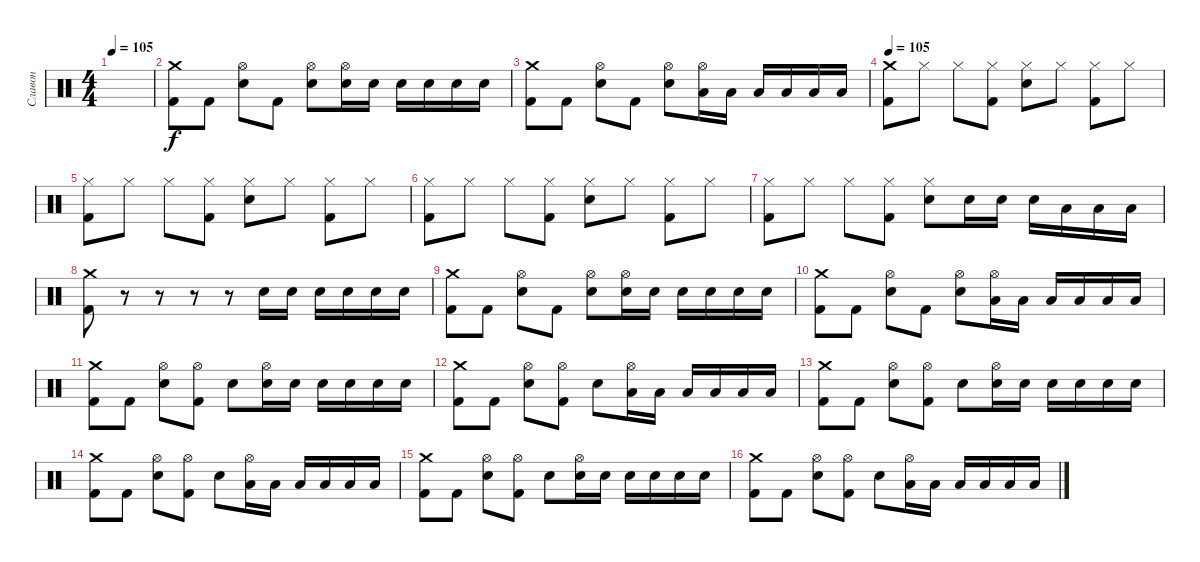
\track ("Славон" "Славон") {instrument percussion}
\staff {score}
\articulation defaults
\ts (4 4)
\tempo 105
\clef neutral
\ks c
|
("Crash medium (hit)" "Kick (hit) 2").8 "Kick (hit) 2".8 ("Hi-Hat (open)" "Snare (hit) 2").8 "Kick (hit) 2".8 ("Hi-Hat (open)" "Snare (hit) 2").8 ("Hi-Hat (open)" "Snare (hit) 2").16 "Snare (hit) 2".16 "Snare (hit) 2".16 "Snare (hit) 2".16 "Snare (hit) 2".16 "Snare (hit) 2".16 |
("Crash medium (hit)" "Kick (hit) 2").8 "Kick (hit) 2".8 ("Hi-Hat (open)" "Snare (hit) 2").8 "Kick (hit) 2".8 ("Hi-Hat (open)" "Snare (hit) 2").8 ("Hi-Hat (open)" "Low Tom (hit)").16 "Low Tom (hit)".16 "Low Tom (hit)".16 "Low Tom (hit)".16 "Low Tom (hit)".16 "Low Tom (hit)".16 |
\tempo 105
("Crash medium (hit)" "Kick (hit) 2").8 "Hi-Hat (closed)".8 "Hi-Hat (closed)".8 ("Hi-Hat (closed)" "Kick (hit) 2").8 ("Hi-Hat (closed)" "Snare (hit) 2").8 "Hi-Hat (closed)".8 ("Hi-Hat (closed)" "Kick (hit) 2").8 "Hi-Hat (closed)".8 |
("Hi-Hat (closed)" "Kick (hit) 2").8 "Hi-Hat (closed)".8 "Hi-Hat (closed)".8 ("Hi-Hat (closed)" "Kick (hit) 2").8 ("Hi-Hat (closed)" "Snare (hit) 2").8 "Hi-Hat (closed)".8 ("Hi-Hat (closed)" "Kick (hit) 2").8 "Hi-Hat (closed)".8 |
("Hi-Hat (closed)" "Kick (hit) 2").8 "Hi-Hat (closed)".8 "Hi-Hat (closed)".8 ("Hi-Hat (closed)" "Kick (hit) 2").8 ("Hi-Hat (closed)" "Snare (hit) 2").8 "Hi-Hat (closed)".8 ("Hi-Hat (closed)" "Kick (hit) 2").8 "Hi-Hat (closed)".8 |
("Hi-Hat (closed)" "Kick (hit) 2").8 "Hi-Hat (closed)".8 "Hi-Hat (closed)".8 ("Hi-Hat (closed)" "Kick (hit) 2").8 ("Hi-Hat (closed)" "Snare (hit) 2").8 "Snare (hit) 2".16 "Snare (hit) 2".16 "Snare (hit) 2".16 "Low Tom (hit)".16 "Low Tom (hit)".16 "Low Tom (hit)".16 |
("Crash medium (hit)" "Kick (hit) 2").8 r.8 r.8 r.8 r.8 "Snare (hit) 2".16 "Snare (hit) 2".16 "Snare (hit) 2".16 "Snare (hit) 2".16 "Snare (hit) 2".16 "Snare (hit) 2".16 |
("Crash medium (hit)" "Kick (hit) 2").8 "Kick (hit) 2".8 ("Hi-Hat (open)" "Snare (hit) 2").8 "Kick (hit) 2".8 ("Hi-Hat (open)" "Snare (hit) 2").8 ("Hi-Hat (open)" "Snare (hit) 2").16 "Snare (hit) 2".16 "Snare (hit) 2".16 "Snare (hit) 2".16 "Snare (hit) 2".16 "Snare (hit) 2".16 |
("Crash medium (hit)" "Kick (hit) 2").8 "Kick (hit) 2".8 ("Hi-Hat (open)" "Snare (hit) 2").8 "Kick (hit) 2".8 ("Hi-Hat (open)" "Snare (hit) 2").8 ("Hi-Hat (open)" "Low Tom (hit)").16 "Low Tom (hit)".16 "Low Tom (hit)".16 "Low Tom (hit)".16 "Low Tom (hit)".16 "Low Tom (hit)".16 |
("Crash medium (hit)" "Kick (hit) 2").8 "Kick (hit) 2".8 ("Hi-Hat (open)" "Snare (hit) 2").8 ("Hi-Hat (open)" "Kick (hit) 2").8 "Snare (hit) 2".8 ("Hi-Hat (open)" "Snare (hit) 2").16 "Snare (hit) 2".16 "Snare (hit) 2".16 "Snare (hit) 2".16 "Snare (hit) 2".16 "Snare (hit) 2".16 |
("Crash medium (hit)" "Kick (hit) 2").8 "Kick (hit) 2".8 ("Hi-Hat (open)" "Snare (hit) 2").8 ("Hi-Hat (open)" "Kick (hit) 2").8 "Snare (hit) 2".8 ("Hi-Hat (open)" "Low Tom (hit)").16 "Low Tom (hit)".16 "Low Tom (hit)".16 "Low Tom (hit)".16 "Low Tom (hit)".16 "Low Tom (hit)".16 |
("Crash medium (hit)" "Kick (hit) 2").8 "Kick (hit) 2".8 ("Hi-Hat (open)" "Snare (hit) 2").8 ("Hi-Hat (open)" "Kick (hit) 2").8 "Snare (hit) 2".8 ("Hi-Hat (open)" "Snare (hit) 2").16 "Snare (hit) 2".16 "Snare (hit) 2".16 "Snare (hit) 2".16 "Snare (hit) 2".16 "Snare (hit) 2".16 |
("Crash medium (hit)" "Kick (hit) 2").8 "Kick (hit) 2".8 ("Hi-Hat (open)" "Snare (hit) 2").8 ("Hi-Hat (open)" "Kick (hit) 2").8 "Snare (hit) 2".8 ("Hi-Hat (open)" "Low Tom (hit)").16 "Low Tom (hit)".16 "Low Tom (hit)".16 "Low Tom (hit)".16 "Low Tom (hit)".16 "Low Tom (hit)".16 |
("Crash medium (hit)" "Kick (hit) 2").8 "Kick (hit) 2".8 ("Hi-Hat (open)" "Snare (hit) 2").8 ("Hi-Hat (open)" "Kick (hit) 2").8 "Snare (hit) 2".8 ("Hi-Hat (open)" "Snare (hit) 2").16 "Snare (hit) 2".16 "Snare (hit) 2".16 "Snare (hit) 2".16 "Snare (hit) 2".16 "Snare (hit) 2".16 |
("Crash medium (hit)" "Kick (hit) 2").8 "Kick (hit) 2".8 ("Hi-Hat (open)" "Snare (hit) 2").8 ("Hi-Hat (open)" "Kick (hit) 2").8 "Snare (hit) 2".8 ("Hi-Hat (open)" "Low Tom (hit)").16 "Low Tom (hit)".16 "Low Tom (hit)".16 "Low Tom (hit)".16 "Low Tom (hit)".16 "Low Tom (hit)".16
